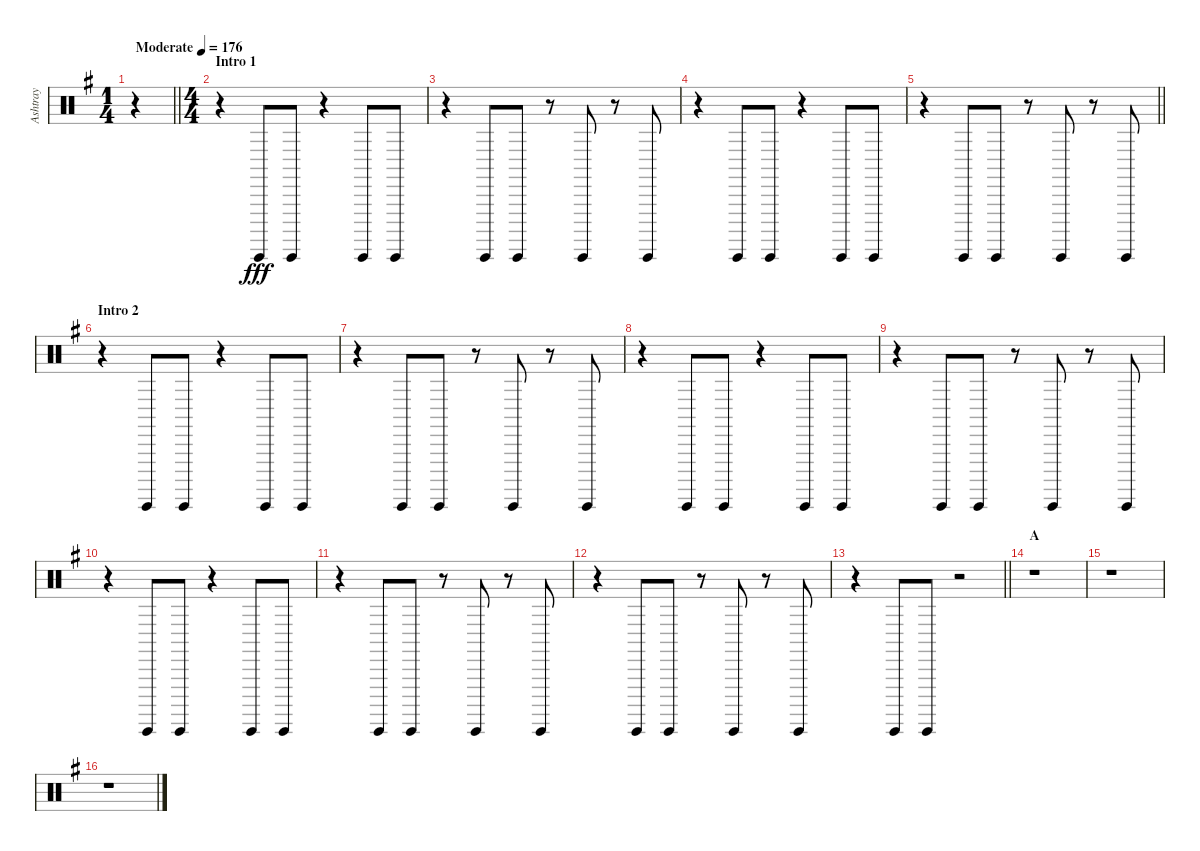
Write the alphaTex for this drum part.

\track ("Ashtray" "Ashtray") {instrument percussion}
\staff {score}
\articulation defaults
\ts (1 4)
\tempo (176 "Moderate")
\clef neutral
\barLineRight lightlight
\ks g
r.4{dy fff} |
\ts (4 4)
\section ("" "Intro 1")
r.4 "Guiro (hit)".8 "Guiro (hit)".8 r.4 "Guiro (hit)".8 "Guiro (hit)".8 |
r.4 "Guiro (hit)".8 "Guiro (hit)".8 r.8 "Guiro (hit)".8 r.8 "Guiro (hit)".8 |
r.4 "Guiro (hit)".8 "Guiro (hit)".8 r.4 "Guiro (hit)".8 "Guiro (hit)".8 |
\barLineRight lightlight
r.4 "Guiro (hit)".8 "Guiro (hit)".8 r.8 "Guiro (hit)".8 r.8 "Guiro (hit)".8 |
\section ("" "Intro 2")
r.4 "Guiro (hit)".8 "Guiro (hit)".8 r.4 "Guiro (hit)".8 "Guiro (hit)".8 |
r.4 "Guiro (hit)".8 "Guiro (hit)".8 r.8 "Guiro (hit)".8 r.8 "Guiro (hit)".8 |
r.4 "Guiro (hit)".8 "Guiro (hit)".8 r.4 "Guiro (hit)".8 "Guiro (hit)".8 |
r.4 "Guiro (hit)".8 "Guiro (hit)".8 r.8 "Guiro (hit)".8 r.8 "Guiro (hit)".8 |
r.4 "Guiro (hit)".8 "Guiro (hit)".8 r.4 "Guiro (hit)".8 "Guiro (hit)".8 |
r.4 "Guiro (hit)".8 "Guiro (hit)".8 r.8 "Guiro (hit)".8 r.8 "Guiro (hit)".8 |
r.4 "Guiro (hit)".8 "Guiro (hit)".8 r.8 "Guiro (hit)".8 r.8 "Guiro (hit)".8 |
\barLineRight lightlight
r.4 "Guiro (hit)".8 "Guiro (hit)".8 r.2 |
\section ("" "A")
r.1 |
r.1 |
r.1
